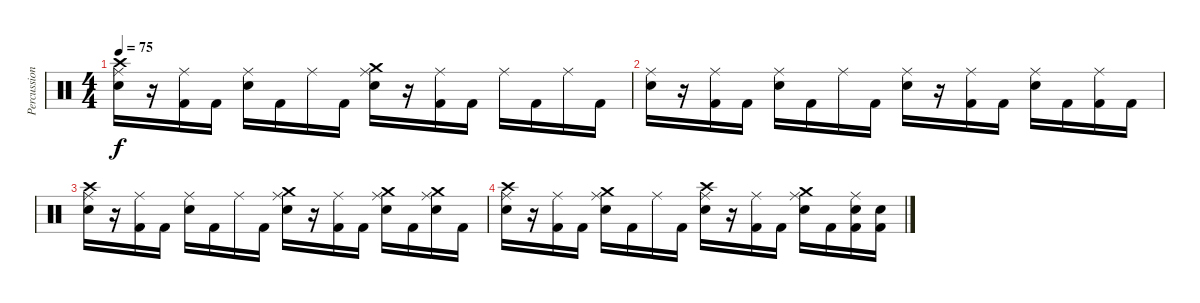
\track ("Percussions" "Percussion") {instrument percussion}
\staff {score}
\articulation defaults
\ts (4 4)
\tempo 75
\clef neutral
\ks c
("Ride (middle)" "Snare (hit) 2" "Crash high (hit)").16{dy f} r.16 ("Ride (middle)" "Kick (hit) 2").16 "Kick (hit) 2".16 ("Ride (middle)" "Snare (hit) 2").16 "Kick (hit) 2".16 "Ride (middle)".16 "Kick (hit) 2".16 ("Ride (middle)" "Snare (hit) 2" "Crash medium (hit)").16 r.16 ("Ride (middle)" "Kick (hit) 2").16 "Kick (hit) 2".16 "Ride (middle)".16 "Kick (hit) 2".16 "Ride (middle)".16 "Kick (hit) 2".16 |
("Ride (middle)" "Snare (hit) 2").16 r.16 ("Ride (middle)" "Kick (hit) 2").16 "Kick (hit) 2".16 ("Ride (middle)" "Snare (hit) 2").16 "Kick (hit) 2".16 "Ride (middle)".16 "Kick (hit) 2".16 ("Ride (middle)" "Snare (hit) 2").16 r.16 ("Ride (middle)" "Kick (hit) 2").16 "Kick (hit) 2".16 ("Ride (middle)" "Snare (hit) 2").16 "Kick (hit) 2".16 ("Ride (middle)" "Kick (hit) 2").16 "Kick (hit) 2".16 |
("Ride (middle)" "Snare (hit) 2" "Crash high (hit)").16 r.16 ("Ride (middle)" "Kick (hit) 2").16 "Kick (hit) 2".16 ("Ride (middle)" "Snare (hit) 2").16 "Kick (hit) 2".16 "Ride (middle)".16 "Kick (hit) 2".16 ("Ride (middle)" "Snare (hit) 2" "Crash medium (hit)").16 r.16 ("Ride (middle)" "Kick (hit) 2").16 "Kick (hit) 2".16 ("Ride (middle)" "Snare (hit) 2" "Crash medium (hit)").16 "Kick (hit) 2".16 ("Ride (middle)" "Snare (hit) 2" "Crash medium (hit)").16 "Kick (hit) 2".16 |
("Ride (middle)" "Snare (hit) 2" "Crash high (hit)").16 r.16 ("Ride (middle)" "Kick (hit) 2").16 "Kick (hit) 2".16 ("Ride (middle)" "Snare (hit) 2" "Crash medium (hit)").16 "Kick (hit) 2".16 "Ride (middle)".16 "Kick (hit) 2".16 ("Ride (middle)" "Snare (hit) 2" "Crash high (hit)").16 r.16 ("Ride (middle)" "Kick (hit) 2").16 "Kick (hit) 2".16 ("Ride (middle)" "Snare (hit) 2" "Crash medium (hit)").16 "Kick (hit) 2".16 ("Ride (middle)" "Snare (hit) 2" "Kick (hit) 2").16 ("Snare (hit) 2" "Kick (hit) 2").16
